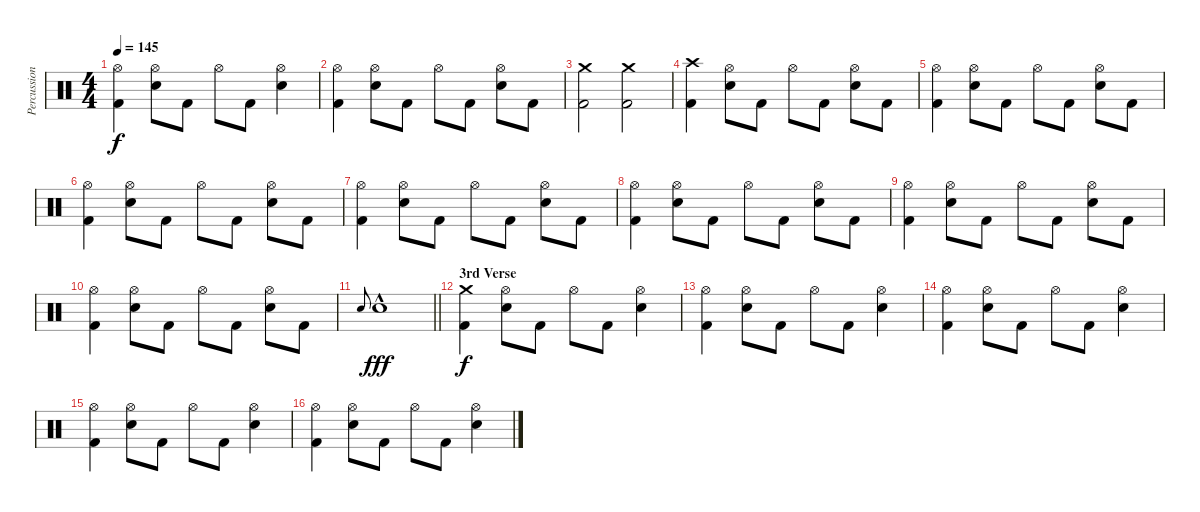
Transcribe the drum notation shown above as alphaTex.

\track ("Percussion" "Percussion") {instrument percussion}
\staff {score}
\articulation defaults
\ts (4 4)
\tempo 145
\clef neutral
\ks c
("Kick (hit) 2" "Hi-Hat (open)").4{dy f} ("Electric Snare (hit)" "Hi-Hat (open)").8 "Kick (hit) 2".8 "Hi-Hat (open)".8 "Kick (hit) 2".8 ("Electric Snare (hit)" "Hi-Hat (open)").4 |
("Kick (hit) 2" "Hi-Hat (open)").4 ("Electric Snare (hit)" "Hi-Hat (open)").8 "Kick (hit) 2".8 "Hi-Hat (open)".8 "Kick (hit) 2".8 ("Electric Snare (hit)" "Hi-Hat (open)").8 "Kick (hit) 2".8 |
("Kick (hit) 2" "Crash medium (hit)").2 ("Kick (hit) 2" "Crash medium (hit)").2 |
("Kick (hit) 2" "Crash high (hit)").4 ("Electric Snare (hit)" "Hi-Hat (open)").8 "Kick (hit) 2".8 "Hi-Hat (open)".8 "Kick (hit) 2".8 ("Electric Snare (hit)" "Hi-Hat (open)").8 "Kick (hit) 2".8 |
("Kick (hit) 2" "Hi-Hat (open)").4 ("Electric Snare (hit)" "Hi-Hat (open)").8 "Kick (hit) 2".8 "Hi-Hat (open)".8 "Kick (hit) 2".8 ("Electric Snare (hit)" "Hi-Hat (open)").8 "Kick (hit) 2".8 |
("Kick (hit) 2" "Hi-Hat (open)").4 ("Electric Snare (hit)" "Hi-Hat (open)").8 "Kick (hit) 2".8 "Hi-Hat (open)".8 "Kick (hit) 2".8 ("Electric Snare (hit)" "Hi-Hat (open)").8 "Kick (hit) 2".8 |
("Kick (hit) 2" "Hi-Hat (open)").4 ("Electric Snare (hit)" "Hi-Hat (open)").8 "Kick (hit) 2".8 "Hi-Hat (open)".8 "Kick (hit) 2".8 ("Electric Snare (hit)" "Hi-Hat (open)").8 "Kick (hit) 2".8 |
("Kick (hit) 2" "Hi-Hat (open)").4 ("Electric Snare (hit)" "Hi-Hat (open)").8 "Kick (hit) 2".8 "Hi-Hat (open)".8 "Kick (hit) 2".8 ("Electric Snare (hit)" "Hi-Hat (open)").8 "Kick (hit) 2".8 |
("Kick (hit) 2" "Hi-Hat (open)").4 ("Electric Snare (hit)" "Hi-Hat (open)").8 "Kick (hit) 2".8 "Hi-Hat (open)".8 "Kick (hit) 2".8 ("Electric Snare (hit)" "Hi-Hat (open)").8 "Kick (hit) 2".8 |
("Kick (hit) 2" "Hi-Hat (open)").4 ("Electric Snare (hit)" "Hi-Hat (open)").8 "Kick (hit) 2".8 "Hi-Hat (open)".8 "Kick (hit) 2".8 ("Electric Snare (hit)" "Hi-Hat (open)").8 "Kick (hit) 2".8 |
\barLineRight lightlight "Electric Snare (hit)".8{gr onbeat} "Electric Snare (hit)"{hac}.1{dy fff}
|
\section ("" "3rd Verse")
("Kick (hit) 2" "Crash medium (hit)").4{dy f} ("Electric Snare (hit)" "Hi-Hat (open)").8 "Kick (hit) 2".8 "Hi-Hat (open)".8 "Kick (hit) 2".8 ("Electric Snare (hit)" "Hi-Hat (open)").4 |
("Kick (hit) 2" "Hi-Hat (open)").4 ("Electric Snare (hit)" "Hi-Hat (open)").8 "Kick (hit) 2".8 "Hi-Hat (open)".8 "Kick (hit) 2".8 ("Electric Snare (hit)" "Hi-Hat (open)").4 |
("Kick (hit) 2" "Hi-Hat (open)").4 ("Electric Snare (hit)" "Hi-Hat (open)").8 "Kick (hit) 2".8 "Hi-Hat (open)".8 "Kick (hit) 2".8 ("Electric Snare (hit)" "Hi-Hat (open)").4 |
("Kick (hit) 2" "Hi-Hat (open)").4 ("Electric Snare (hit)" "Hi-Hat (open)").8 "Kick (hit) 2".8 "Hi-Hat (open)".8 "Kick (hit) 2".8 ("Electric Snare (hit)" "Hi-Hat (open)").4 |
("Kick (hit) 2" "Hi-Hat (open)").4 ("Electric Snare (hit)" "Hi-Hat (open)").8 "Kick (hit) 2".8 "Hi-Hat (open)".8 "Kick (hit) 2".8 ("Electric Snare (hit)" "Hi-Hat (open)").4
